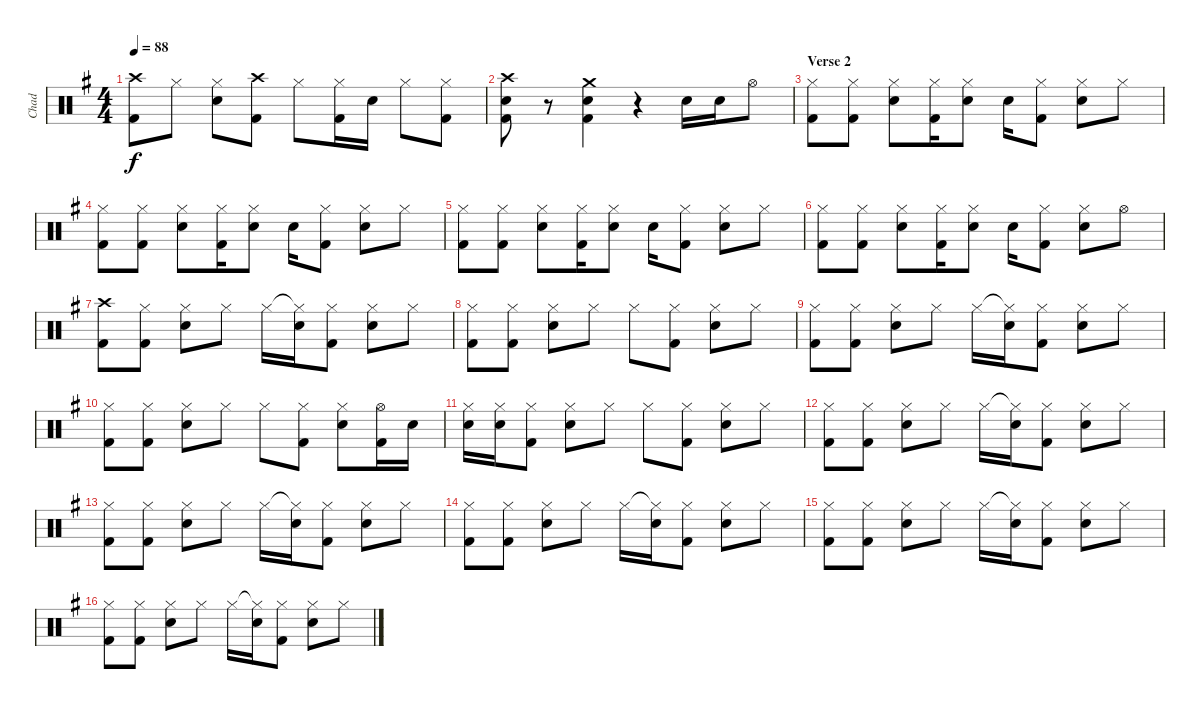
\track ("Chad" "Chad") {instrument percussion}
\staff {score}
\articulation defaults
\ts (4 4)
\tempo 88
\clef neutral
\ks g
("Crash high (hit)" "Kick (hit) 2").8{dy f} "Hi-Hat (closed)".8 ("Hi-Hat (closed)" "Snare (hit) 2").8 ("Crash high (hit)" "Kick (hit) 2").8 "Hi-Hat (closed)".8 ("Hi-Hat (closed)" "Kick (hit) 2").16 "Snare (hit) 2".16 "Hi-Hat (closed)".8 ("Hi-Hat (closed)" "Kick (hit) 2").8 |
("Crash high (hit)" "Snare (hit) 2" "Kick (hit) 2").8 r.8 ("Crash medium (hit)" "Snare (hit) 2" "Kick (hit) 2").4 r.4 "Snare (hit) 2".16 "Snare (hit) 2".16 "Hi-Hat (open)".8 |
\section ("" "Verse 2")
("Hi-Hat (closed)" "Kick (hit) 2").8 ("Hi-Hat (closed)" "Kick (hit) 2").8 ("Hi-Hat (closed)" "Snare (hit) 2").8 ("Hi-Hat (closed)" "Kick (hit) 2").16 ("Hi-Hat (closed)" "Snare (hit) 2").8 "Snare (hit) 2".16 ("Hi-Hat (closed)" "Kick (hit) 2").8 ("Hi-Hat (closed)" "Snare (hit) 2").8 "Hi-Hat (closed)".8 |
("Hi-Hat (closed)" "Kick (hit) 2").8 ("Hi-Hat (closed)" "Kick (hit) 2").8 ("Hi-Hat (closed)" "Snare (hit) 2").8 ("Hi-Hat (closed)" "Kick (hit) 2").16 ("Hi-Hat (closed)" "Snare (hit) 2").8 "Snare (hit) 2".16 ("Hi-Hat (closed)" "Kick (hit) 2").8 ("Hi-Hat (closed)" "Snare (hit) 2").8 "Hi-Hat (closed)".8 |
("Hi-Hat (closed)" "Kick (hit) 2").8 ("Hi-Hat (closed)" "Kick (hit) 2").8 ("Hi-Hat (closed)" "Snare (hit) 2").8 ("Hi-Hat (closed)" "Kick (hit) 2").16 ("Hi-Hat (closed)" "Snare (hit) 2").8 "Snare (hit) 2".16 ("Hi-Hat (closed)" "Kick (hit) 2").8 ("Hi-Hat (closed)" "Snare (hit) 2").8 "Hi-Hat (closed)".8 |
("Hi-Hat (closed)" "Kick (hit) 2").8 ("Hi-Hat (closed)" "Kick (hit) 2").8 ("Hi-Hat (closed)" "Snare (hit) 2").8 ("Hi-Hat (closed)" "Kick (hit) 2").16 ("Hi-Hat (closed)" "Snare (hit) 2").8 "Snare (hit) 2".16 ("Hi-Hat (closed)" "Kick (hit) 2").8 ("Hi-Hat (closed)" "Snare (hit) 2").8 "Hi-Hat (open)".8 |
("Crash high (hit)" "Kick (hit) 2").8 ("Hi-Hat (closed)" "Kick (hit) 2").8 ("Hi-Hat (closed)" "Snare (hit) 2").8 "Hi-Hat (closed)".8 "Hi-Hat (closed)".16 ("Hi-Hat (closed)"{t} "Snare (hit) 2").16 ("Hi-Hat (closed)" "Kick (hit) 2").8 ("Hi-Hat (closed)" "Snare (hit) 2").8 "Hi-Hat (closed)".8 |
("Hi-Hat (closed)" "Kick (hit) 2").8 ("Hi-Hat (closed)" "Kick (hit) 2").8 ("Hi-Hat (closed)" "Snare (hit) 2").8 "Hi-Hat (closed)".8 "Hi-Hat (closed)".8 ("Hi-Hat (closed)" "Kick (hit) 2").8 ("Hi-Hat (closed)" "Snare (hit) 2").8 "Hi-Hat (closed)".8 |
("Hi-Hat (closed)" "Kick (hit) 2").8 ("Hi-Hat (closed)" "Kick (hit) 2").8 ("Hi-Hat (closed)" "Snare (hit) 2").8 "Hi-Hat (closed)".8 "Hi-Hat (closed)".16 ("Hi-Hat (closed)"{t} "Snare (hit) 2").16 ("Hi-Hat (closed)" "Kick (hit) 2").8 ("Hi-Hat (closed)" "Snare (hit) 2").8 "Hi-Hat (closed)".8 |
("Hi-Hat (closed)" "Kick (hit) 2").8 ("Hi-Hat (closed)" "Kick (hit) 2").8 ("Hi-Hat (closed)" "Snare (hit) 2").8 "Hi-Hat (closed)".8 "Hi-Hat (closed)".8 ("Hi-Hat (closed)" "Kick (hit) 2").8 ("Hi-Hat (closed)" "Snare (hit) 2").8 ("Hi-Hat (open)" "Kick (hit) 2").16 "Snare (hit)".16 |
("Hi-Hat (closed)" "Snare (hit) 2").16 ("Hi-Hat (closed)" "Snare (hit) 2").16 ("Hi-Hat (closed)" "Kick (hit) 2").8 ("Hi-Hat (closed)" "Snare (hit) 2").8 "Hi-Hat (closed)".8 "Hi-Hat (closed)".8 ("Hi-Hat (closed)" "Kick (hit) 2").8 ("Hi-Hat (closed)" "Snare (hit) 2").8 "Hi-Hat (closed)".8 |
("Hi-Hat (closed)" "Kick (hit) 2").8 ("Hi-Hat (closed)" "Kick (hit) 2").8 ("Hi-Hat (closed)" "Snare (hit) 2").8 "Hi-Hat (closed)".8 "Hi-Hat (closed)".16 ("Hi-Hat (closed)"{t} "Snare (hit) 2").16 ("Hi-Hat (closed)" "Kick (hit) 2").8 ("Hi-Hat (closed)" "Snare (hit) 2").8 "Hi-Hat (closed)".8 |
("Hi-Hat (closed)" "Kick (hit) 2").8 ("Hi-Hat (closed)" "Kick (hit) 2").8 ("Hi-Hat (closed)" "Snare (hit) 2").8 "Hi-Hat (closed)".8 "Hi-Hat (closed)".16 ("Hi-Hat (closed)"{t} "Snare (hit) 2").16 ("Hi-Hat (closed)" "Kick (hit) 2").8 ("Hi-Hat (closed)" "Snare (hit) 2").8 "Hi-Hat (closed)".8 |
("Hi-Hat (closed)" "Kick (hit) 2").8 ("Hi-Hat (closed)" "Kick (hit) 2").8 ("Hi-Hat (closed)" "Snare (hit) 2").8 "Hi-Hat (closed)".8 "Hi-Hat (closed)".16 ("Hi-Hat (closed)"{t} "Snare (hit) 2").16 ("Hi-Hat (closed)" "Kick (hit) 2").8 ("Hi-Hat (closed)" "Snare (hit) 2").8 "Hi-Hat (closed)".8 |
("Hi-Hat (closed)" "Kick (hit) 2").8 ("Hi-Hat (closed)" "Kick (hit) 2").8 ("Hi-Hat (closed)" "Snare (hit) 2").8 "Hi-Hat (closed)".8 "Hi-Hat (closed)".16 ("Hi-Hat (closed)"{t} "Snare (hit) 2").16 ("Hi-Hat (closed)" "Kick (hit) 2").8 ("Hi-Hat (closed)" "Snare (hit) 2").8 "Hi-Hat (closed)".8 |
("Hi-Hat (closed)" "Kick (hit) 2").8 ("Hi-Hat (closed)" "Kick (hit) 2").8 ("Hi-Hat (closed)" "Snare (hit) 2").8 "Hi-Hat (closed)".8 "Hi-Hat (closed)".16 ("Hi-Hat (closed)"{t} "Snare (hit) 2").16 ("Hi-Hat (closed)" "Kick (hit) 2").8 ("Hi-Hat (closed)" "Snare (hit) 2").8 "Hi-Hat (closed)".8
